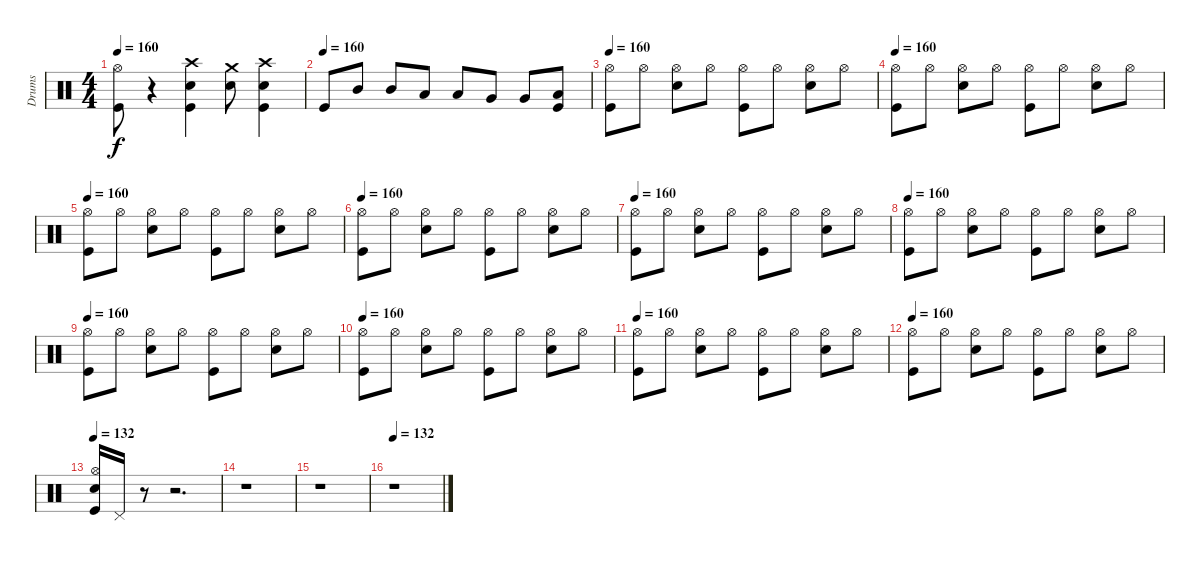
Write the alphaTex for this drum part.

\track ("Drums" "Drums") {instrument percussion}
\staff {score}
\articulation defaults
\ts (4 4)
\tempo 160
\clef neutral
\ks c
("Kick (hit)" "Hi-Hat (open)").8{dy f} r.4 ("Snare (hit) 2" "Crash high (hit)" "Kick (hit)").4 ("Snare (hit) 2" "Crash medium (hit)").8 ("Snare (hit) 2" "Kick (hit)" "Crash high (hit)").4 |
\tempo (160)
"Kick (hit)".8 "Mid Tom (hit)".8 "Mid Tom (hit)".8 "Low Tom (hit)".8 "Low Tom (hit)".8 "Very Low Tom (hit)".8 "Very Low Tom (hit)".8 ("Kick (hit)" "Low Floor Tom (hit)").8 |
\tempo 160
("Hi-Hat (open)" "Kick (hit)").8 "Hi-Hat (open)".8 ("Hi-Hat (open)" "Snare (hit) 2").8 "Hi-Hat (open)".8 ("Hi-Hat (open)" "Kick (hit)").8 "Hi-Hat (open)".8 ("Hi-Hat (open)" "Snare (hit) 2").8 "Hi-Hat (open)".8 |
\tempo 160
("Hi-Hat (open)" "Kick (hit)").8 "Hi-Hat (open)".8 ("Hi-Hat (open)" "Snare (hit) 2").8 "Hi-Hat (open)".8 ("Hi-Hat (open)" "Kick (hit)").8 "Hi-Hat (open)".8 ("Hi-Hat (open)" "Snare (hit) 2").8 "Hi-Hat (open)".8 |
\tempo 160
("Hi-Hat (open)" "Kick (hit)").8 "Hi-Hat (open)".8 ("Hi-Hat (open)" "Snare (hit) 2").8 "Hi-Hat (open)".8 ("Hi-Hat (open)" "Kick (hit)").8 "Hi-Hat (open)".8 ("Hi-Hat (open)" "Snare (hit) 2").8 "Hi-Hat (open)".8 |
\tempo 160
("Hi-Hat (open)" "Kick (hit)").8 "Hi-Hat (open)".8 ("Hi-Hat (open)" "Snare (hit) 2").8 "Hi-Hat (open)".8 ("Hi-Hat (open)" "Kick (hit)").8 "Hi-Hat (open)".8 ("Hi-Hat (open)" "Snare (hit) 2").8 "Hi-Hat (open)".8 |
\tempo 160
("Hi-Hat (open)" "Kick (hit)").8 "Hi-Hat (open)".8 ("Hi-Hat (open)" "Snare (hit) 2").8 "Hi-Hat (open)".8 ("Hi-Hat (open)" "Kick (hit)").8 "Hi-Hat (open)".8 ("Hi-Hat (open)" "Snare (hit) 2").8 "Hi-Hat (open)".8 |
\tempo 160
("Hi-Hat (open)" "Kick (hit)").8 "Hi-Hat (open)".8 ("Hi-Hat (open)" "Snare (hit) 2").8 "Hi-Hat (open)".8 ("Hi-Hat (open)" "Kick (hit)").8 "Hi-Hat (open)".8 ("Hi-Hat (open)" "Snare (hit) 2").8 "Hi-Hat (open)".8 |
\tempo 160
("Hi-Hat (open)" "Kick (hit)").8 "Hi-Hat (open)".8 ("Hi-Hat (open)" "Snare (hit) 2").8 "Hi-Hat (open)".8 ("Hi-Hat (open)" "Kick (hit)").8 "Hi-Hat (open)".8 ("Hi-Hat (open)" "Snare (hit) 2").8 "Hi-Hat (open)".8 |
\tempo 160
("Hi-Hat (open)" "Kick (hit)").8 "Hi-Hat (open)".8 ("Hi-Hat (open)" "Snare (hit) 2").8 "Hi-Hat (open)".8 ("Hi-Hat (open)" "Kick (hit)").8 "Hi-Hat (open)".8 ("Hi-Hat (open)" "Snare (hit) 2").8 "Hi-Hat (open)".8 |
\tempo 160
("Hi-Hat (open)" "Kick (hit)").8 "Hi-Hat (open)".8 ("Hi-Hat (open)" "Snare (hit) 2").8 "Hi-Hat (open)".8 ("Hi-Hat (open)" "Kick (hit)").8 "Hi-Hat (open)".8 ("Hi-Hat (open)" "Snare (hit) 2").8 "Hi-Hat (open)".8 |
\tempo 160
("Hi-Hat (open)" "Kick (hit)").8 "Hi-Hat (open)".8 ("Hi-Hat (open)" "Snare (hit) 2").8 "Hi-Hat (open)".8 ("Hi-Hat (open)" "Kick (hit)").8 "Hi-Hat (open)".8 ("Hi-Hat (open)" "Snare (hit) 2").8 "Hi-Hat (open)".8 |
\tempo 132
("Hi-Hat (open)" "Snare (hit) 2" "Kick (hit)").16 "Pedal Hi-Hat (hit)".16 r.8 r.2{d} |
r.1 |
r.1 |
\tempo 132
r.1
